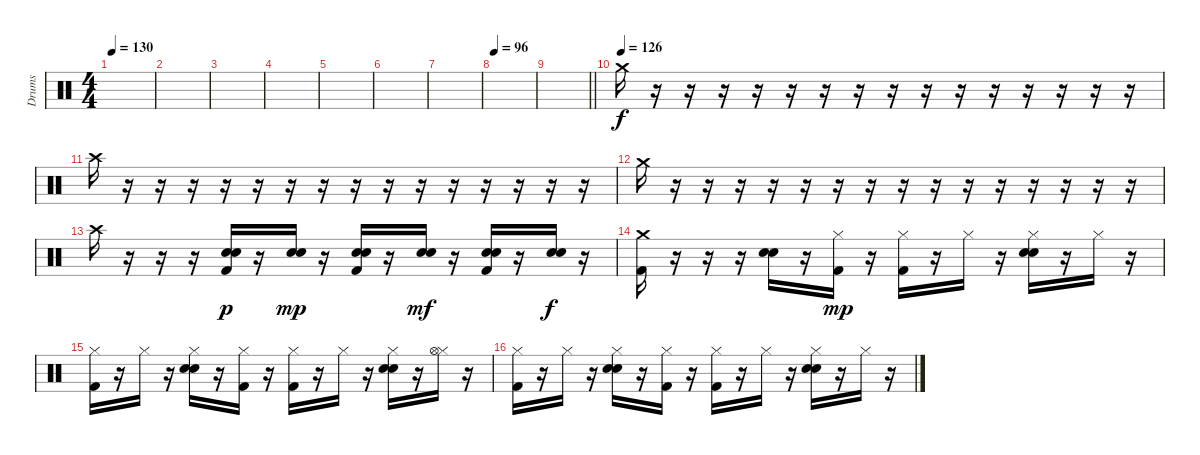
\track ("Drums" "Drums") {instrument percussion}
\staff {score}
\articulation defaults
\ts (4 4)
\section ("" "")
\tempo 130
\clef neutral
\ks c
|
|
|
|
|
|
|
\tempo 96
|
\barLineRight lightlight
|
\section ("" "")
\tempo 130
\tempo (126)
"Crash medium (hit)".16 r.16 r.16 r.16 r.16 r.16 r.16 r.16 r.16 r.16 r.16 r.16 r.16 r.16 r.16 r.16 |
"Crash high (hit)".16 r.16 r.16 r.16 r.16 r.16 r.16 r.16 r.16 r.16 r.16 r.16 r.16 r.16 r.16 r.16 |
"Crash medium (hit)".16 r.16 r.16 r.16 r.16 r.16 r.16 r.16 r.16 r.16 r.16 r.16 r.16 r.16 r.16 r.16 |
"Crash high (hit)".16 r.16 r.16 r.16 ("Snare (hit) 2" "Electric Snare (hit)" "Kick (hit) 2").16{dy p} r.16 ("Snare (hit) 2" "Electric Snare (hit)").16{dy mp} r.16 ("Snare (hit) 2" "Electric Snare (hit)" "Kick (hit) 2").16 r.16 ("Snare (hit) 2" "Electric Snare (hit)").16{dy mf} r.16 ("Snare (hit) 2" "Electric Snare (hit)" "Kick (hit) 2").16 r.16 ("Snare (hit) 2" "Electric Snare (hit)").16{dy f} r.16 |
("Crash medium (hit)" "Kick (hit) 2").16 r.16 r.16 r.16 ("Snare (hit) 2" "Electric Snare (hit)").16 r.16 ("Hi-Hat (closed)" "Kick (hit) 2").16{dy mp} r.16 ("Hi-Hat (closed)" "Kick (hit) 2").16 r.16 "Hi-Hat (closed)".16 r.16 ("Hi-Hat (closed)" "Snare (hit) 2" "Electric Snare (hit)").16 r.16 "Hi-Hat (closed)".16 r.16 |
("Hi-Hat (closed)" "Kick (hit) 2").16 r.16 "Hi-Hat (closed)".16 r.16 ("Hi-Hat (closed)" "Snare (hit) 2" "Electric Snare (hit)").16 r.16 ("Hi-Hat (closed)" "Kick (hit) 2").16 r.16 ("Hi-Hat (closed)" "Kick (hit) 2").16 r.16 "Hi-Hat (closed)".16 r.16 ("Hi-Hat (closed)" "Snare (hit) 2" "Electric Snare (hit)").16 r.16 ("Hi-Hat (closed)" "Hi-Hat (open)").16 r.16 |
("Hi-Hat (closed)" "Kick (hit) 2").16 r.16 "Hi-Hat (closed)".16 r.16 ("Hi-Hat (closed)" "Snare (hit) 2" "Electric Snare (hit)").16 r.16 ("Hi-Hat (closed)" "Kick (hit) 2").16 r.16 ("Hi-Hat (closed)" "Kick (hit) 2").16 r.16 "Hi-Hat (closed)".16 r.16 ("Hi-Hat (closed)" "Snare (hit) 2" "Electric Snare (hit)").16 r.16 "Hi-Hat (closed)".16 r.16
